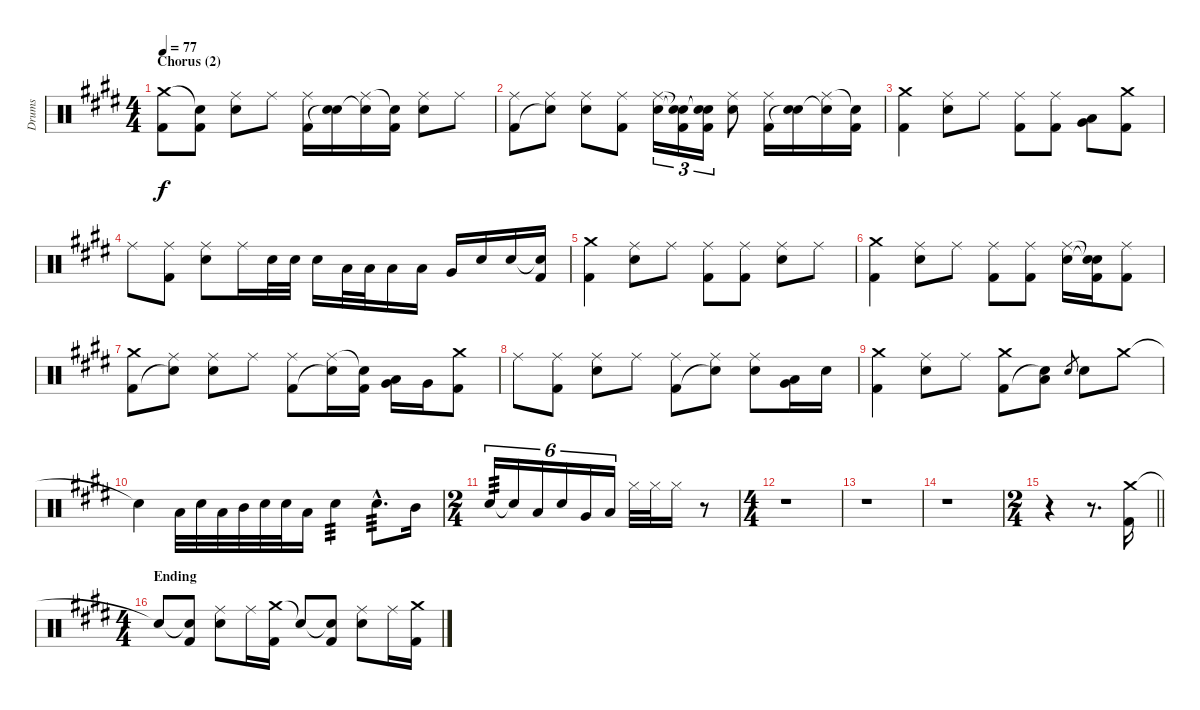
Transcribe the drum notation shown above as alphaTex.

\track ("Drums" "Drums") {instrument percussion}
\staff {score}
\articulation defaults
\ts (4 4)
\section ("" "Chorus (2)")
\tempo 77
\clef neutral
\ks e
("Crash medium (hit)" "Kick (hit) 2").8{dy f} ("Snare (hit)"{t} "Kick (hit) 2").8 ("Ride (middle)" "Electric Snare (hit)").8 "Ride (middle)".8 ("Ride (middle)" "Kick (hit) 2").16 ("Electric Snare (hit)" "Snare (hit)"{t}).16 ("Ride (middle)" "Snare (hit)"{t}).16 ("Snare (hit)"{t} "Kick (hit) 2").16 ("Ride (middle)" "Electric Snare (hit)").8 "Ride (middle)".8 |
("Ride (middle)" "Kick (hit) 2").8 ("Ride (middle)" "Snare (hit)"{t}).8 ("Ride (middle)" "Electric Snare (hit)").8 ("Ride (middle)" "Kick (hit) 2").8 ("Ride (middle)" "Electric Snare (hit)").16{tu (3 2)} ("Snare (hit)"{t} "Snare (hit)"{t} "Kick (hit) 2").16{tu (3 2)} ("Snare (hit)"{t} "Snare (hit)"{t} "Kick (hit) 2").16{tu (3 2)} ("Ride (middle)" "Electric Snare (hit)").8 ("Ride (middle)" "Kick (hit) 2").16 ("Electric Snare (hit)" "Snare (hit)"{t}).16 ("Ride (middle)" "Snare (hit)"{t}).16 ("Snare (hit)"{t} "Kick (hit) 2").16 |
("Crash medium (hit)" "Kick (hit) 2").4 ("Ride (middle)" "Electric Snare (hit)").8 "Ride (middle)".8 ("Ride (middle)" "Kick (hit) 2").8 ("Ride (middle)" "Kick (hit) 2").8 ("Low Tom (hit)" "Very Low Tom (hit)").8 ("Crash medium (hit)" "Kick (hit) 2").8 |
"Ride (middle)".8 ("Ride (middle)" "Kick (hit) 2").8 ("Ride (middle)" "Electric Snare (hit)").8 "Ride (middle)".16 "Electric Snare (hit)".32 "Electric Snare (hit)".32 "Electric Snare (hit)".16 "Low Tom (hit)".32 "Low Tom (hit)".32 "Low Tom (hit)".16 "Low Tom (hit)".16 "Very Low Tom (hit)".16 "Electric Snare (hit)".16 "Electric Snare (hit)".16 ("Snare (hit)"{t} "Kick (hit) 2").16 |
("Crash medium (hit)" "Kick (hit) 2").4 ("Ride (middle)" "Electric Snare (hit)").8 "Ride (middle)".8 ("Ride (middle)" "Kick (hit) 2").8 ("Ride (middle)" "Kick (hit) 2").8 ("Ride (middle)" "Electric Snare (hit)").8 "Ride (middle)".8 |
("Crash medium (hit)" "Kick (hit) 2").4 ("Ride (middle)" "Electric Snare (hit)").8 "Ride (middle)".8 ("Ride (middle)" "Kick (hit) 2").8 ("Ride (middle)" "Kick (hit) 2").8 ("Ride (middle)" "Electric Snare (hit)").16 ("Snare (hit)"{t} "Snare (hit)"{t} "Kick (hit) 2").16 ("Ride (middle)" "Kick (hit) 2").8 |
("Crash medium (hit)" "Kick (hit) 2").8 ("Ride (middle)" "Snare (hit)"{t}).8 ("Ride (middle)" "Electric Snare (hit)").8 "Ride (middle)".8 ("Ride (middle)" "Kick (hit) 2").8 ("Ride (middle)" "Snare (hit)"{t}).16 ("Snare (hit)"{t} "Kick (hit) 2").16 ("Low Tom (hit)" "Very Low Tom (hit)").16 "Very Low Tom (hit)".16 ("Crash medium (hit)" "Kick (hit) 2").8 |
"Ride (middle)".8 ("Ride (middle)" "Kick (hit) 2").8 ("Ride (middle)" "Electric Snare (hit)").8 "Ride (middle)".8 ("Ride (middle)" "Kick (hit) 2").8 ("Ride (middle)" "Snare (hit)"{t}).8 ("Ride (middle)" "Electric Snare (hit)").8 ("Low Tom (hit)" "Very Low Tom (hit)").16 "Electric Snare (hit)".16 |
("Crash medium (hit)" "Kick (hit) 2").4 ("Ride (middle)" "Electric Snare (hit)").8 "Ride (middle)".8 ("Crash medium (hit)" "Kick (hit) 2").8 ("Low Tom (hit)" "Snare (hit)"{t}).8 "Electric Snare (hit)".8{gr} "Electric Snare (hit)".8 "Crash medium (hit)".8 |
"Snare (hit)"{t}.4 "Low Tom (hit)".32 "Electric Snare (hit)".32 "Low Tom (hit)".32 "Mid Tom (hit)".32 "Electric Snare (hit)".32 "Electric Snare (hit)".32 "Low Tom (hit)".16 "Electric Snare (hit)".4{tp 3} "Electric Snare (hit)"{hac}.8{d tp 3} "Mid Tom (hit)".16 |
\ts (2 4)
"Electric Snare (hit)".16{tu (6 4) tp 3} "Snare (hit)"{t}.16{tu (6 4)} "Low Tom (hit)".16{tu (6 4)} "Electric Snare (hit)".16{tu (6 4)} "Very Low Tom (hit)".16{tu (6 4)} "Low Tom (hit)".16{tu (6 4)} "Hi-Hat (closed)".32 "Hi-Hat (closed)".32 "Hi-Hat (closed)".16 r.8 |
\ts (4 4)
r.1 |
r.1 |
r.1 |
\ts (2 4)
\barLineRight lightlight
r.4 r.8{d} ("Crash medium (hit)" "Kick (hit) 2").16 |
\ts (4 4)
\section ("" "Ending")
"Snare (hit)"{t}.8 ("Snare (hit)"{t} "Kick (hit) 2").8 ("Ride (middle)" "Electric Snare (hit)").8 "Ride (middle)".16 ("Crash medium (hit)" "Kick (hit) 2").16 "Snare (hit)"{t}.8 ("Snare (hit)"{t} "Kick (hit) 2").8 ("Ride (middle)" "Electric Snare (hit)").8 "Ride (middle)".16 ("Crash medium (hit)" "Kick (hit) 2").16
